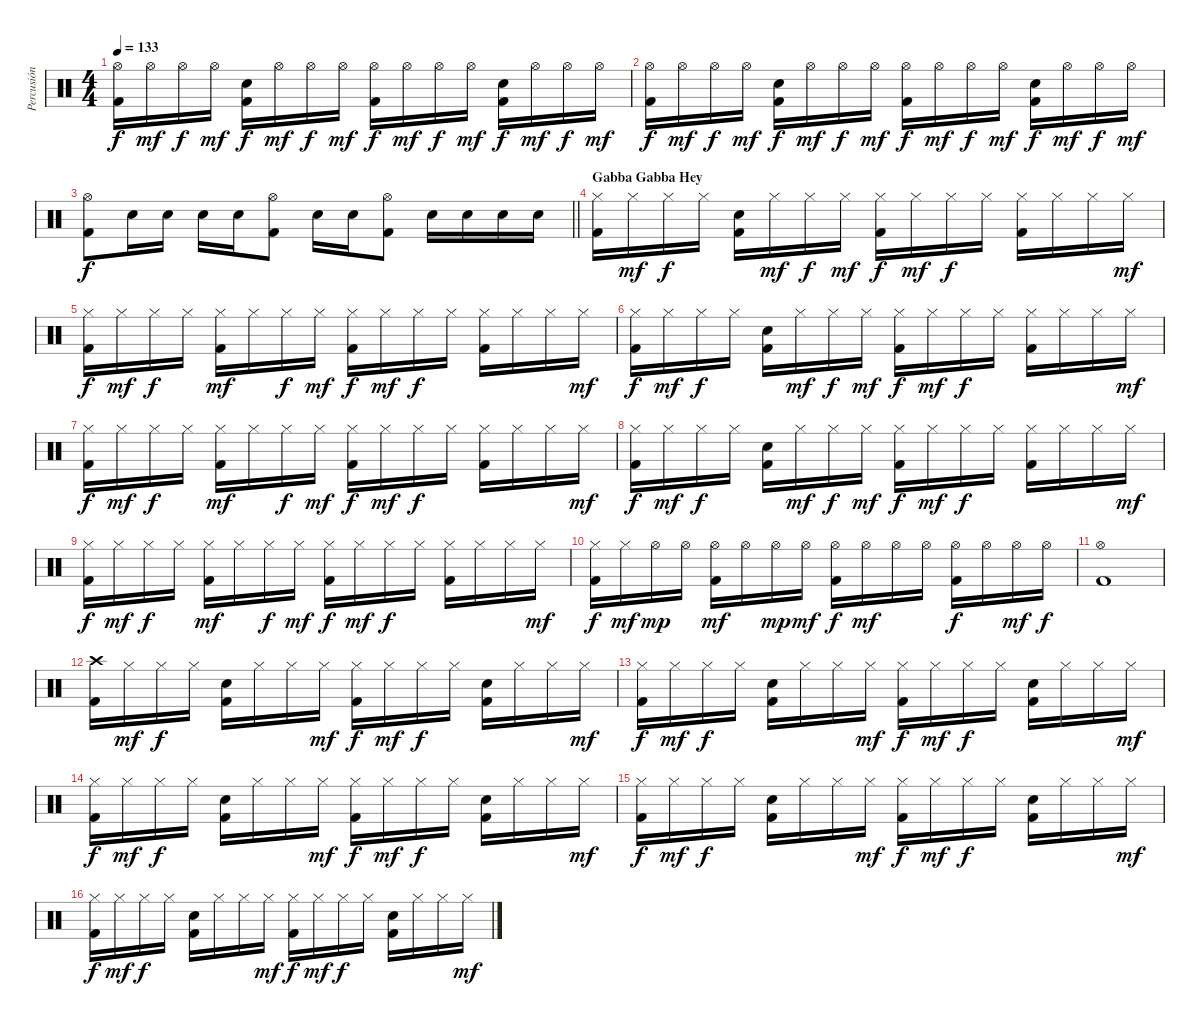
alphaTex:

\track ("Percusión" "Percusión") {instrument percussion}
\staff {score}
\articulation defaults
\ts (4 4)
\tempo 133
\clef neutral
\ks c
("Hi-Hat (open)" "Kick (hit) 2").16{dy f} "Hi-Hat (open)".16{dy mf} "Hi-Hat (open)".16{dy f} "Hi-Hat (open)".16{dy mf} ("Snare (hit) 2" "Kick (hit) 2").16{dy f} "Hi-Hat (open)".16{dy mf} "Hi-Hat (open)".16{dy f} "Hi-Hat (open)".16{dy mf} ("Hi-Hat (open)" "Kick (hit) 2").16{dy f} "Hi-Hat (open)".16{dy mf} "Hi-Hat (open)".16{dy f} "Hi-Hat (open)".16{dy mf} ("Snare (hit) 2" "Kick (hit) 2").16{dy f} "Hi-Hat (open)".16{dy mf} "Hi-Hat (open)".16{dy f} "Hi-Hat (open)".16{dy mf} |
("Hi-Hat (open)" "Kick (hit) 2").16{dy f} "Hi-Hat (open)".16{dy mf} "Hi-Hat (open)".16{dy f} "Hi-Hat (open)".16{dy mf} ("Snare (hit) 2" "Kick (hit) 2").16{dy f} "Hi-Hat (open)".16{dy mf} "Hi-Hat (open)".16{dy f} "Hi-Hat (open)".16{dy mf} ("Hi-Hat (open)" "Kick (hit) 2").16{dy f} "Hi-Hat (open)".16{dy mf} "Hi-Hat (open)".16{dy f} "Hi-Hat (open)".16{dy mf} ("Snare (hit) 2" "Kick (hit) 2").16{dy f} "Hi-Hat (open)".16{dy mf} "Hi-Hat (open)".16{dy f} "Hi-Hat (open)".16{dy mf} |
\barLineRight lightlight
("Hi-Hat (open)" "Kick (hit) 2").8{dy f} "Snare (hit) 2".16 "Snare (hit) 2".16 "Snare (hit) 2".16 "Snare (hit) 2".16 ("Hi-Hat (open)" "Kick (hit) 2").8 "Snare (hit) 2".16 "Snare (hit) 2".16 ("Hi-Hat (open)" "Kick (hit) 2").8 "Snare (hit) 2".16 "Snare (hit) 2".16 "Snare (hit) 2".16 "Snare (hit) 2".16 |
\section ("" "Gabba Gabba Hey")
("Hi-Hat (closed)" "Kick (hit) 2").16 "Hi-Hat (closed)".16{dy mf} "Hi-Hat (closed)".16{dy f} "Hi-Hat (closed)".16 ("Snare (hit) 2" "Kick (hit) 2").16 "Hi-Hat (closed)".16{dy mf} "Hi-Hat (closed)".16{dy f} "Hi-Hat (closed)".16{dy mf} ("Hi-Hat (closed)" "Kick (hit) 2").16{dy f} "Hi-Hat (closed)".16{dy mf} "Hi-Hat (closed)".16{dy f} "Hi-Hat (closed)".16 ("Hi-Hat (closed)" "Kick (hit) 2").16 "Hi-Hat (closed)".16 "Hi-Hat (closed)".16 "Hi-Hat (closed)".16{dy mf} |
("Hi-Hat (closed)" "Kick (hit) 2").16{dy f} "Hi-Hat (closed)".16{dy mf} "Hi-Hat (closed)".16{dy f} "Hi-Hat (closed)".16 ("Hi-Hat (closed)" "Kick (hit) 2").16{dy mf} "Hi-Hat (closed)".16 "Hi-Hat (closed)".16{dy f} "Hi-Hat (closed)".16{dy mf} ("Hi-Hat (closed)" "Kick (hit) 2").16{dy f} "Hi-Hat (closed)".16{dy mf} "Hi-Hat (closed)".16{dy f} "Hi-Hat (closed)".16 ("Hi-Hat (closed)" "Kick (hit) 2").16 "Hi-Hat (closed)".16 "Hi-Hat (closed)".16 "Hi-Hat (closed)".16{dy mf} |
("Hi-Hat (closed)" "Kick (hit) 2").16{dy f} "Hi-Hat (closed)".16{dy mf} "Hi-Hat (closed)".16{dy f} "Hi-Hat (closed)".16 ("Snare (hit) 2" "Kick (hit) 2").16 "Hi-Hat (closed)".16{dy mf} "Hi-Hat (closed)".16{dy f} "Hi-Hat (closed)".16{dy mf} ("Hi-Hat (closed)" "Kick (hit) 2").16{dy f} "Hi-Hat (closed)".16{dy mf} "Hi-Hat (closed)".16{dy f} "Hi-Hat (closed)".16 ("Hi-Hat (closed)" "Kick (hit) 2").16 "Hi-Hat (closed)".16 "Hi-Hat (closed)".16 "Hi-Hat (closed)".16{dy mf} |
("Hi-Hat (closed)" "Kick (hit) 2").16{dy f} "Hi-Hat (closed)".16{dy mf} "Hi-Hat (closed)".16{dy f} "Hi-Hat (closed)".16 ("Hi-Hat (closed)" "Kick (hit) 2").16{dy mf} "Hi-Hat (closed)".16 "Hi-Hat (closed)".16{dy f} "Hi-Hat (closed)".16{dy mf} ("Hi-Hat (closed)" "Kick (hit) 2").16{dy f} "Hi-Hat (closed)".16{dy mf} "Hi-Hat (closed)".16{dy f} "Hi-Hat (closed)".16 ("Hi-Hat (closed)" "Kick (hit) 2").16 "Hi-Hat (closed)".16 "Hi-Hat (closed)".16 "Hi-Hat (closed)".16{dy mf} |
("Hi-Hat (closed)" "Kick (hit) 2").16{dy f} "Hi-Hat (closed)".16{dy mf} "Hi-Hat (closed)".16{dy f} "Hi-Hat (closed)".16 ("Snare (hit) 2" "Kick (hit) 2").16 "Hi-Hat (closed)".16{dy mf} "Hi-Hat (closed)".16{dy f} "Hi-Hat (closed)".16{dy mf} ("Hi-Hat (closed)" "Kick (hit) 2").16{dy f} "Hi-Hat (closed)".16{dy mf} "Hi-Hat (closed)".16{dy f} "Hi-Hat (closed)".16 ("Hi-Hat (closed)" "Kick (hit) 2").16 "Hi-Hat (closed)".16 "Hi-Hat (closed)".16 "Hi-Hat (closed)".16{dy mf} |
("Hi-Hat (closed)" "Kick (hit) 2").16{dy f} "Hi-Hat (closed)".16{dy mf} "Hi-Hat (closed)".16{dy f} "Hi-Hat (closed)".16 ("Hi-Hat (closed)" "Kick (hit) 2").16{dy mf} "Hi-Hat (closed)".16 "Hi-Hat (closed)".16{dy f} "Hi-Hat (closed)".16{dy mf} ("Hi-Hat (closed)" "Kick (hit) 2").16{dy f} "Hi-Hat (closed)".16{dy mf} "Hi-Hat (closed)".16{dy f} "Hi-Hat (closed)".16 ("Hi-Hat (closed)" "Kick (hit) 2").16 "Hi-Hat (closed)".16 "Hi-Hat (closed)".16 "Hi-Hat (closed)".16{dy mf} |
("Hi-Hat (closed)" "Kick (hit) 2").16{dy f} "Hi-Hat (closed)".16{dy mf} "Hi-Hat (open)".16{dy mp} "Hi-Hat (open)".16 ("Hi-Hat (open)" "Kick (hit) 2").16{dy mf} "Hi-Hat (open)".16 "Hi-Hat (open)".16{dy mp} "Hi-Hat (open)".16{dy mf} ("Hi-Hat (open)" "Kick (hit) 2").16{dy f} "Hi-Hat (open)".16{dy mf} "Hi-Hat (open)".16 "Hi-Hat (open)".16 ("Hi-Hat (open)" "Kick (hit) 2").16{dy f} "Hi-Hat (open)".16 "Hi-Hat (open)".16{dy mf} "Hi-Hat (open)".16{dy f} |
("Hi-Hat (open)" "Kick (hit) 2").1 |
("Crash high (hit)" "Kick (hit) 2").16 "Hi-Hat (closed)".16{dy mf} "Hi-Hat (closed)".16{dy f} "Hi-Hat (closed)".16 ("Snare (hit) 2" "Kick (hit) 2").16 "Hi-Hat (closed)".16 "Hi-Hat (closed)".16 "Hi-Hat (closed)".16{dy mf} ("Hi-Hat (closed)" "Kick (hit) 2").16{dy f} "Hi-Hat (closed)".16{dy mf} "Hi-Hat (closed)".16{dy f} "Hi-Hat (closed)".16 ("Snare (hit) 2" "Kick (hit) 2").16 "Hi-Hat (closed)".16 "Hi-Hat (closed)".16 "Hi-Hat (closed)".16{dy mf} |
("Hi-Hat (closed)" "Kick (hit) 2").16{dy f} "Hi-Hat (closed)".16{dy mf} "Hi-Hat (closed)".16{dy f} "Hi-Hat (closed)".16 ("Snare (hit) 2" "Kick (hit) 2").16 "Hi-Hat (closed)".16 "Hi-Hat (closed)".16 "Hi-Hat (closed)".16{dy mf} ("Hi-Hat (closed)" "Kick (hit) 2").16{dy f} "Hi-Hat (closed)".16{dy mf} "Hi-Hat (closed)".16{dy f} "Hi-Hat (closed)".16 ("Snare (hit) 2" "Kick (hit) 2").16 "Hi-Hat (closed)".16 "Hi-Hat (closed)".16 "Hi-Hat (closed)".16{dy mf} |
("Hi-Hat (closed)" "Kick (hit) 2").16{dy f} "Hi-Hat (closed)".16{dy mf} "Hi-Hat (closed)".16{dy f} "Hi-Hat (closed)".16 ("Snare (hit) 2" "Kick (hit) 2").16 "Hi-Hat (closed)".16 "Hi-Hat (closed)".16 "Hi-Hat (closed)".16{dy mf} ("Hi-Hat (closed)" "Kick (hit) 2").16{dy f} "Hi-Hat (closed)".16{dy mf} "Hi-Hat (closed)".16{dy f} "Hi-Hat (closed)".16 ("Snare (hit) 2" "Kick (hit) 2").16 "Hi-Hat (closed)".16 "Hi-Hat (closed)".16 "Hi-Hat (closed)".16{dy mf} |
("Hi-Hat (closed)" "Kick (hit) 2").16{dy f} "Hi-Hat (closed)".16{dy mf} "Hi-Hat (closed)".16{dy f} "Hi-Hat (closed)".16 ("Snare (hit) 2" "Kick (hit) 2").16 "Hi-Hat (closed)".16 "Hi-Hat (closed)".16 "Hi-Hat (closed)".16{dy mf} ("Hi-Hat (closed)" "Kick (hit) 2").16{dy f} "Hi-Hat (closed)".16{dy mf} "Hi-Hat (closed)".16{dy f} "Hi-Hat (closed)".16 ("Snare (hit) 2" "Kick (hit) 2").16 "Hi-Hat (closed)".16 "Hi-Hat (closed)".16 "Hi-Hat (closed)".16{dy mf} |
("Hi-Hat (closed)" "Kick (hit) 2").16{dy f} "Hi-Hat (closed)".16{dy mf} "Hi-Hat (closed)".16{dy f} "Hi-Hat (closed)".16 ("Snare (hit) 2" "Kick (hit) 2").16 "Hi-Hat (closed)".16 "Hi-Hat (closed)".16 "Hi-Hat (closed)".16{dy mf} ("Hi-Hat (closed)" "Kick (hit) 2").16{dy f} "Hi-Hat (closed)".16{dy mf} "Hi-Hat (closed)".16{dy f} "Hi-Hat (closed)".16 ("Snare (hit) 2" "Kick (hit) 2").16 "Hi-Hat (closed)".16 "Hi-Hat (closed)".16 "Hi-Hat (closed)".16{dy mf}
